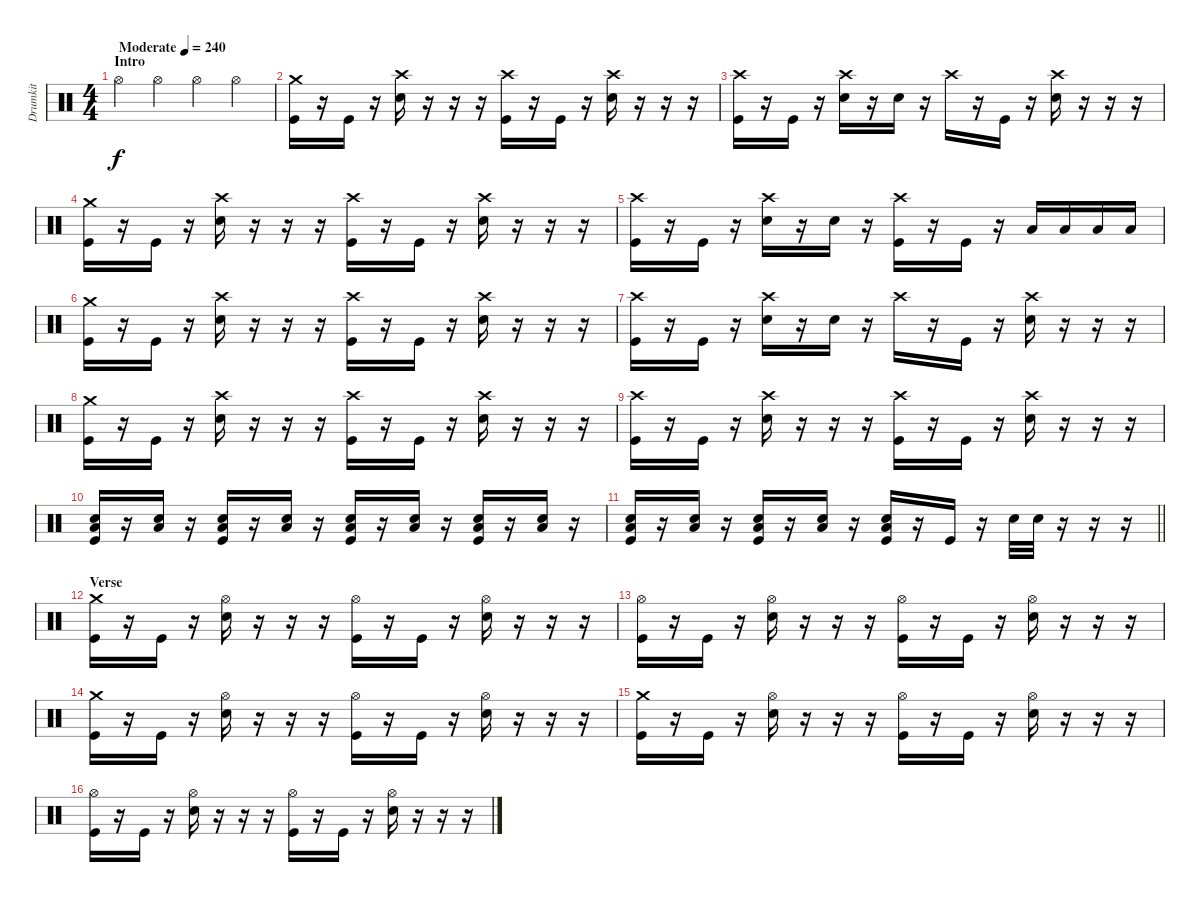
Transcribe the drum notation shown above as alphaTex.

\track ("Drumkit" "Drumkit") {instrument percussion}
\staff {score}
\articulation defaults
\ts (4 4)
\section ("" "Intro")
\tempo (240 "Moderate")
\clef neutral
\ks c "Hi-Hat (open)".4{dy f} "Hi-Hat (open)".4 "Hi-Hat (open)".4 "Hi-Hat (open)".4
|
("Crash medium (hit)" "Kick (hit)").16 r.16 "Kick (hit)".16 r.16 ("Crash high (hit)" "Snare (hit) 2").16 r.16 r.16 r.16 ("Crash high (hit)" "Kick (hit)").16 r.16 "Kick (hit)".16 r.16 ("Crash high (hit)" "Snare (hit) 2").16 r.16 r.16 r.16 |
("Crash high (hit)" "Kick (hit)").16 r.16 "Kick (hit)".16 r.16 ("Crash high (hit)" "Snare (hit) 2").16 r.16 "Snare (hit) 2".16 r.16 "Crash high (hit)".16 r.16 "Kick (hit)".16 r.16 ("Crash high (hit)" "Snare (hit) 2").16 r.16 r.16 r.16 |
("Crash medium (hit)" "Kick (hit)").16 r.16 "Kick (hit)".16 r.16 ("Crash high (hit)" "Snare (hit) 2").16 r.16 r.16 r.16 ("Crash high (hit)" "Kick (hit)").16 r.16 "Kick (hit)".16 r.16 ("Crash high (hit)" "Snare (hit) 2").16 r.16 r.16 r.16 |
("Crash high (hit)" "Kick (hit)").16 r.16 "Kick (hit)".16 r.16 ("Crash high (hit)" "Snare (hit) 2").16 r.16 "Snare (hit) 2".16 r.16 ("Crash high (hit)" "Kick (hit)").16 r.16 "Kick (hit)".16 r.16 "Low Floor Tom (hit)".16 "Low Floor Tom (hit)".16 "Low Floor Tom (hit)".16 "Low Floor Tom (hit)".16 |
("Crash medium (hit)" "Kick (hit)").16 r.16 "Kick (hit)".16 r.16 ("Crash high (hit)" "Snare (hit) 2").16 r.16 r.16 r.16 ("Crash high (hit)" "Kick (hit)").16 r.16 "Kick (hit)".16 r.16 ("Crash high (hit)" "Snare (hit) 2").16 r.16 r.16 r.16 |
("Crash high (hit)" "Kick (hit)").16 r.16 "Kick (hit)".16 r.16 ("Crash high (hit)" "Snare (hit) 2").16 r.16 "Snare (hit) 2".16 r.16 "Crash high (hit)".16 r.16 "Kick (hit)".16 r.16 ("Crash high (hit)" "Snare (hit) 2").16 r.16 r.16 r.16 |
("Crash medium (hit)" "Kick (hit)").16 r.16 "Kick (hit)".16 r.16 ("Crash high (hit)" "Snare (hit) 2").16 r.16 r.16 r.16 ("Crash high (hit)" "Kick (hit)").16 r.16 "Kick (hit)".16 r.16 ("Crash high (hit)" "Snare (hit) 2").16 r.16 r.16 r.16 |
("Crash high (hit)" "Kick (hit)").16 r.16 "Kick (hit)".16 r.16 ("Crash high (hit)" "Snare (hit) 2").16 r.16 r.16 r.16 ("Crash high (hit)" "Kick (hit)").16 r.16 "Kick (hit)".16 r.16 ("Crash high (hit)" "Snare (hit) 2").16 r.16 r.16 r.16 |
("Snare (hit) 2" "Low Floor Tom (hit)" "Kick (hit)").16 r.16 ("Snare (hit) 2" "Low Floor Tom (hit)").16 r.16 ("Snare (hit) 2" "Low Floor Tom (hit)" "Kick (hit)").16 r.16 ("Snare (hit) 2" "Low Floor Tom (hit)").16 r.16 ("Snare (hit) 2" "Low Floor Tom (hit)" "Kick (hit)").16 r.16 ("Snare (hit) 2" "Low Floor Tom (hit)").16 r.16 ("Snare (hit) 2" "Low Floor Tom (hit)" "Kick (hit)").16 r.16 ("Snare (hit) 2" "Low Floor Tom (hit)").16 r.16 |
\barLineRight lightlight
("Snare (hit) 2" "Low Floor Tom (hit)" "Kick (hit)").16 r.16 ("Snare (hit) 2" "Low Floor Tom (hit)").16 r.16 ("Snare (hit) 2" "Low Floor Tom (hit)" "Kick (hit)").16 r.16 ("Snare (hit) 2" "Low Floor Tom (hit)").16 r.16 ("Snare (hit) 2" "Low Floor Tom (hit)" "Kick (hit)").16 r.16 "Kick (hit)".16 r.16 "Snare (hit) 2".32 "Snare (hit) 2".32 r.16 r.16 r.16 |
\section ("" "Verse")
("Crash medium (hit)" "Kick (hit)").16 r.16 "Kick (hit)".16 r.16 ("Hi-Hat (open)" "Snare (hit) 2").16 r.16 r.16 r.16 ("Hi-Hat (open)" "Kick (hit)").16 r.16 "Kick (hit)".16 r.16 ("Hi-Hat (open)" "Snare (hit) 2").16 r.16 r.16 r.16 |
("Hi-Hat (open)" "Kick (hit)").16 r.16 "Kick (hit)".16 r.16 ("Hi-Hat (open)" "Snare (hit) 2").16 r.16 r.16 r.16 ("Hi-Hat (open)" "Kick (hit)").16 r.16 "Kick (hit)".16 r.16 ("Hi-Hat (open)" "Snare (hit) 2").16 r.16 r.16 r.16 |
("Crash medium (hit)" "Kick (hit)").16 r.16 "Kick (hit)".16 r.16 ("Hi-Hat (open)" "Snare (hit) 2").16 r.16 r.16 r.16 ("Hi-Hat (open)" "Kick (hit)").16 r.16 "Kick (hit)".16 r.16 ("Hi-Hat (open)" "Snare (hit) 2").16 r.16 r.16 r.16 |
("Crash medium (hit)" "Kick (hit)").16 r.16 "Kick (hit)".16 r.16 ("Hi-Hat (open)" "Snare (hit) 2").16 r.16 r.16 r.16 ("Hi-Hat (open)" "Kick (hit)").16 r.16 "Kick (hit)".16 r.16 ("Hi-Hat (open)" "Snare (hit) 2").16 r.16 r.16 r.16 |
("Hi-Hat (open)" "Kick (hit)").16 r.16 "Kick (hit)".16 r.16 ("Hi-Hat (open)" "Snare (hit) 2").16 r.16 r.16 r.16 ("Hi-Hat (open)" "Kick (hit)").16 r.16 "Kick (hit)".16 r.16 ("Hi-Hat (open)" "Snare (hit) 2").16 r.16 r.16 r.16
